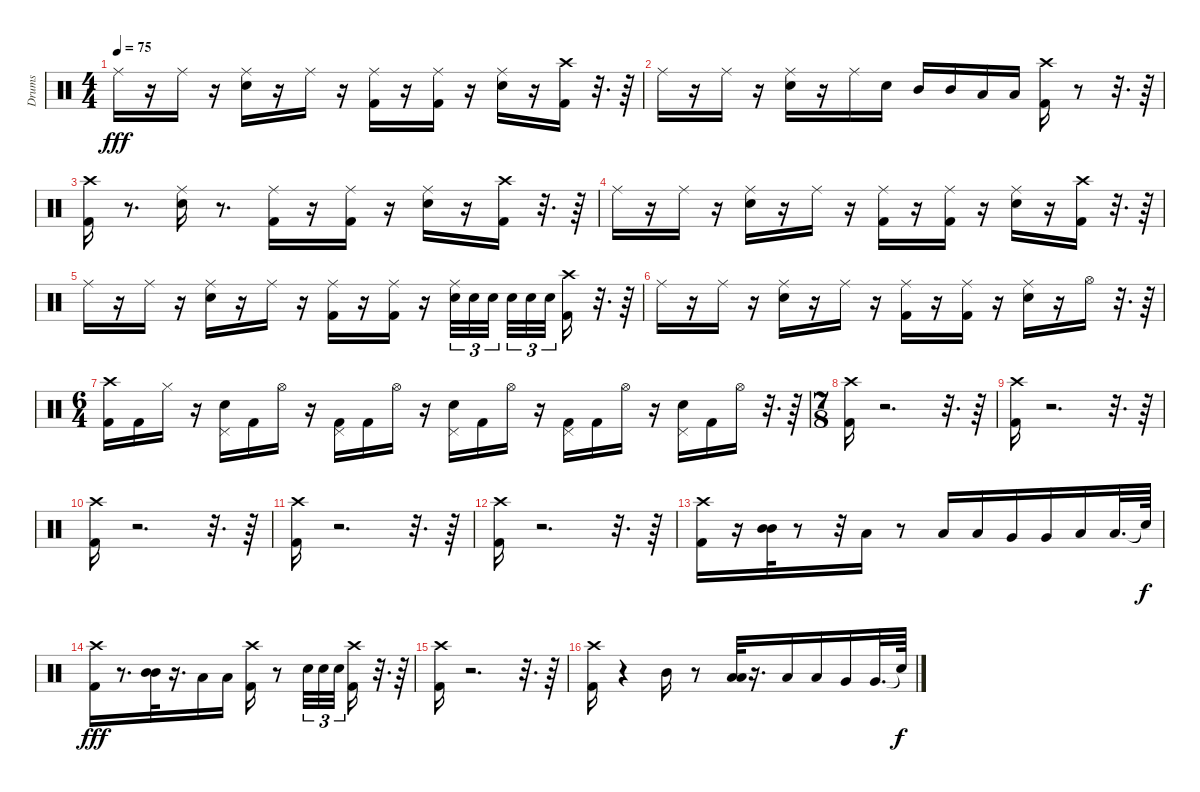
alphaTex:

\track ("Drums" "Drums") {instrument percussion}
\staff {score}
\articulation defaults
\ts (4 4)
\tempo 75
\clef neutral
\ks c "Ride (middle)".16{dy fff}
r.16 "Ride (middle)".16 r.16 ("Electric Snare (hit)" "Ride (middle)").16 r.16 "Ride (middle)".16 r.16 ("Kick (hit) 2" "Ride (middle)").16 r.16 ("Kick (hit) 2" "Ride (middle)").16 r.16 ("Electric Snare (hit)" "Ride (middle)").16 r.16 ("Kick (hit) 2" "Crash high (hit)").16 r.32{d} r.64 |
"Ride (middle)".16 r.16 "Ride (middle)".16 r.16 ("Electric Snare (hit)" "Ride (middle)").16 r.16 "Ride (middle)".16 "Electric Snare (hit)".16 "Mid Tom (hit)".16 "Mid Tom (hit)".16 "Low Tom (hit)".16 "Low Tom (hit)".16 ("Kick (hit) 2" "Crash high (hit)").16 r.8 r.32{d} r.64 |
("Crash high (hit)" "Kick (hit) 2").16 r.8{d} ("Ride (middle)" "Electric Snare (hit)").16 r.8{d} ("Ride (middle)" "Kick (hit) 2").16 r.16 ("Ride (middle)" "Kick (hit) 2").16 r.16 ("Ride (middle)" "Electric Snare (hit)").16 r.16 ("Kick (hit) 2" "Crash high (hit)").16 r.32{d} r.64 |
"Ride (middle)".16 r.16 "Ride (middle)".16 r.16 ("Electric Snare (hit)" "Ride (middle)").16 r.16 "Ride (middle)".16 r.16 ("Kick (hit) 2" "Ride (middle)").16 r.16 ("Kick (hit) 2" "Ride (middle)").16 r.16 ("Electric Snare (hit)" "Ride (middle)").16 r.16 ("Crash high (hit)" "Kick (hit) 2").16 r.32{d} r.64 |
"Ride (middle)".16 r.16 "Ride (middle)".16 r.16 ("Ride (middle)" "Electric Snare (hit)").16 r.16 "Ride (middle)".16 r.16 ("Ride (middle)" "Kick (hit) 2").16 r.16 ("Ride (middle)" "Kick (hit) 2").16 r.16 ("Electric Snare (hit)" "Ride (middle)").32{tu (3 2)} "Electric Snare (hit)".32{tu (3 2)} "Electric Snare (hit)".32{tu (3 2) beam splitsecondary} "Electric Snare (hit)".32{tu (3 2)} "Electric Snare (hit)".32{tu (3 2)} "Electric Snare (hit)".32{tu (3 2) beam splitsecondary} ("Crash high (hit)" "Kick (hit) 2").16 r.32{d} r.64 |
"Ride (middle)".16 r.16 "Ride (middle)".16 r.16 ("Ride (middle)" "Electric Snare (hit)").16 r.16 "Ride (middle)".16 r.16 ("Ride (middle)" "Kick (hit) 2").16 r.16 ("Ride (middle)" "Kick (hit) 2").16 r.16 ("Ride (middle)" "Electric Snare (hit)").16 r.16 "Hi-Hat (open)".16 r.32{d} r.64 |
\ts (6 4)
("Kick (hit) 2" "Crash high (hit)").16 "Kick (hit) 2".16 "Hi-Hat (closed)".16 r.16 ("Electric Snare (hit)" "Pedal Hi-Hat (hit)").16 "Kick (hit) 2".16 "Hi-Hat (open)".16 r.16 ("Kick (hit) 2" "Pedal Hi-Hat (hit)").16 "Kick (hit) 2".16 "Hi-Hat (open)".16 r.16 ("Electric Snare (hit)" "Pedal Hi-Hat (hit)").16 "Kick (hit) 2".16 "Hi-Hat (open)".16 r.16 ("Kick (hit) 2" "Pedal Hi-Hat (hit)").16 "Kick (hit) 2".16 "Hi-Hat (open)".16 r.16 ("Electric Snare (hit)" "Pedal Hi-Hat (hit)").16 "Kick (hit) 2".16 "Hi-Hat (open)".16 r.32{d} r.64 |
\ts (7 8)
("Crash high (hit)" "Kick (hit) 2").16 r.2{d} r.32{d} r.64 |
("Kick (hit) 2" "Crash high (hit)").16 r.2{d} r.32{d} r.64 |
("Kick (hit) 2" "Crash high (hit)").16 r.2{d} r.32{d} r.64 |
("Kick (hit) 2" "Crash high (hit)").16 r.2{d} r.32{d} r.64 |
("Kick (hit) 2" "Crash high (hit)").16 r.2{d} r.32{d} r.64 |
("Kick (hit) 2" "Crash high (hit)").16 r.16 ("Mid Tom (hit)" "Mid Tom (hit)").32 r.8 r.32 "Low Tom (hit)".16 r.8 "Low Tom (hit)".16 "Low Tom (hit)".16 "Very Low Tom (hit)".16 "Very Low Tom (hit)".16 "Low Floor Tom (hit)".16 "Low Floor Tom (hit)".32{d} "Snare (hit)"{t}.64{dy f} |
("Crash high (hit)" "Kick (hit) 2").16{dy fff} r.8{d} ("Mid Tom (hit)" "Mid Tom (hit)").32 r.16{d} "Low Tom (hit)".16 "Low Tom (hit)".16 ("Crash high (hit)" "Kick (hit) 2").16 r.8 "Electric Snare (hit)".32{tu (3 2)} "Electric Snare (hit)".32{tu (3 2)} "Electric Snare (hit)".32{tu (3 2)} ("Crash high (hit)" "Kick (hit) 2").16 r.32{d} r.64 |
("Crash high (hit)" "Kick (hit) 2").16 r.2{d} r.32{d} r.64 |
("Crash high (hit)" "Kick (hit) 2").16 r.4 "Mid Tom (hit)".16 r.8 ("Low Tom (hit)" "Low Tom (hit)").32 r.16{d} "Low Tom (hit)".16 "Low Tom (hit)".16 "Very Low Tom (hit)".16 "Very Low Tom (hit)".32{d} "Snare (hit)"{t}.64{dy f}
